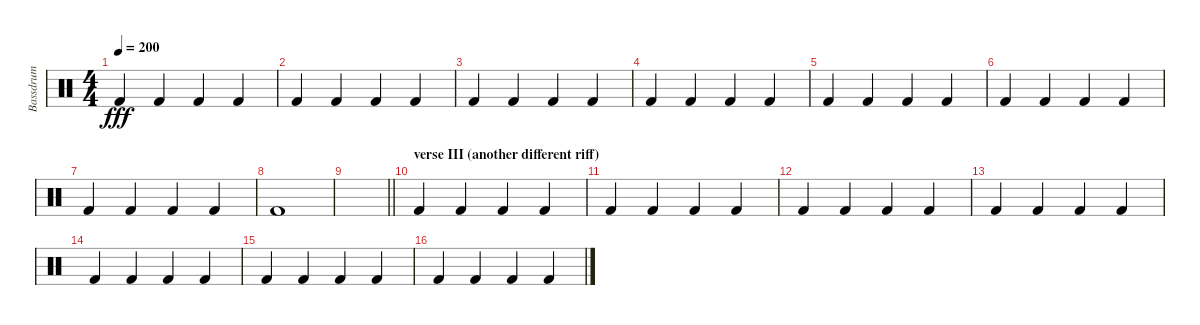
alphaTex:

\track ("Bassdrum" "Bassdrum") {instrument percussion}
\staff {score}
\articulation defaults
\ts (4 4)
\tempo 200
\clef neutral
\ks c "Kick (hit) 2".4{dy fff} "Kick (hit) 2".4 "Kick (hit) 2".4 "Kick (hit) 2".4
|
"Kick (hit) 2".4 "Kick (hit) 2".4 "Kick (hit) 2".4 "Kick (hit) 2".4 |
"Kick (hit) 2".4 "Kick (hit) 2".4 "Kick (hit) 2".4 "Kick (hit) 2".4 |
"Kick (hit) 2".4 "Kick (hit) 2".4 "Kick (hit) 2".4 "Kick (hit) 2".4 |
"Kick (hit) 2".4 "Kick (hit) 2".4 "Kick (hit) 2".4 "Kick (hit) 2".4 |
"Kick (hit) 2".4 "Kick (hit) 2".4 "Kick (hit) 2".4 "Kick (hit) 2".4 |
"Kick (hit) 2".4 "Kick (hit) 2".4 "Kick (hit) 2".4 "Kick (hit) 2".4 |
"Kick (hit) 2".1 |
\barLineRight lightlight
|
\section ("" "verse III (another different riff)")
"Kick (hit) 2".4 "Kick (hit) 2".4 "Kick (hit) 2".4 "Kick (hit) 2".4 |
"Kick (hit) 2".4 "Kick (hit) 2".4 "Kick (hit) 2".4 "Kick (hit) 2".4 |
"Kick (hit) 2".4 "Kick (hit) 2".4 "Kick (hit) 2".4 "Kick (hit) 2".4 |
"Kick (hit) 2".4 "Kick (hit) 2".4 "Kick (hit) 2".4 "Kick (hit) 2".4 |
"Kick (hit) 2".4 "Kick (hit) 2".4 "Kick (hit) 2".4 "Kick (hit) 2".4 |
"Kick (hit) 2".4 "Kick (hit) 2".4 "Kick (hit) 2".4 "Kick (hit) 2".4 |
"Kick (hit) 2".4 "Kick (hit) 2".4 "Kick (hit) 2".4 "Kick (hit) 2".4
